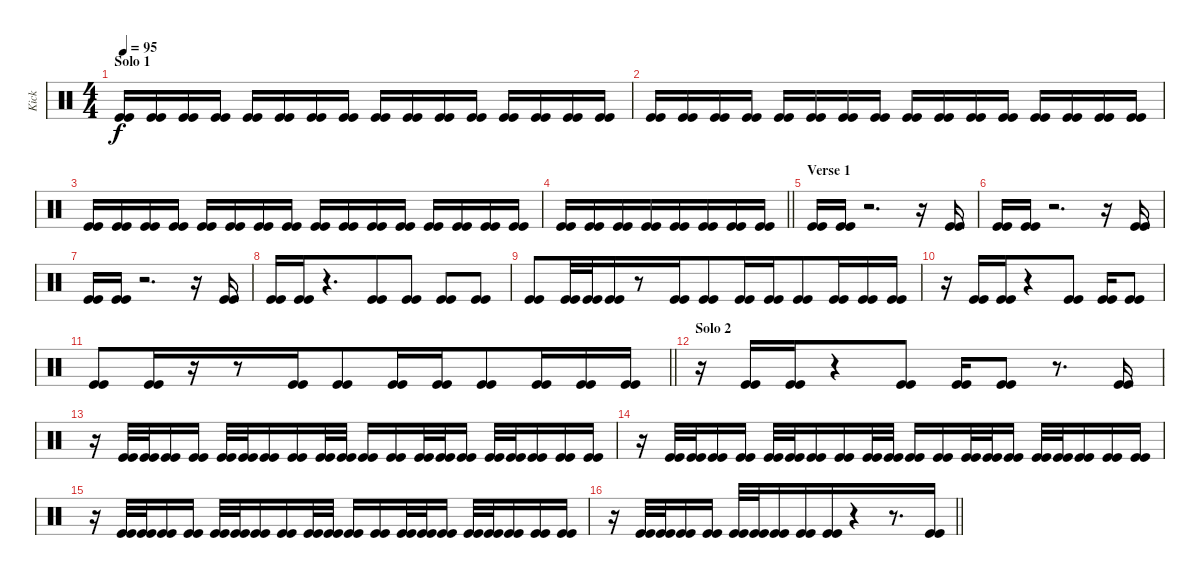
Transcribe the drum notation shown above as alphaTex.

\track ("Kick" "Kick") {instrument percussion}
\staff {score}
\articulation defaults
\ts (4 4)
\section ("" "Solo 1")
\tempo 95
\clef neutral
\ks c
("Kick (hit)" "Kick (hit)").16{dy f beam merge} ("Kick (hit)" "Kick (hit)").16{beam merge} ("Kick (hit)" "Kick (hit)").16 ("Kick (hit)" "Kick (hit)").16 ("Kick (hit)" "Kick (hit)").16 ("Kick (hit)" "Kick (hit)").16{beam merge} ("Kick (hit)" "Kick (hit)").16 ("Kick (hit)" "Kick (hit)").16 ("Kick (hit)" "Kick (hit)").16 ("Kick (hit)" "Kick (hit)").16 ("Kick (hit)" "Kick (hit)").16 ("Kick (hit)" "Kick (hit)").16 ("Kick (hit)" "Kick (hit)").16 ("Kick (hit)" "Kick (hit)").16 ("Kick (hit)" "Kick (hit)").16 ("Kick (hit)" "Kick (hit)").16 |
("Kick (hit)" "Kick (hit)").16{beam merge} ("Kick (hit)" "Kick (hit)").16{beam merge} ("Kick (hit)" "Kick (hit)").16 ("Kick (hit)" "Kick (hit)").16 ("Kick (hit)" "Kick (hit)").16 ("Kick (hit)" "Kick (hit)").16{beam merge} ("Kick (hit)" "Kick (hit)").16 ("Kick (hit)" "Kick (hit)").16 ("Kick (hit)" "Kick (hit)").16 ("Kick (hit)" "Kick (hit)").16 ("Kick (hit)" "Kick (hit)").16 ("Kick (hit)" "Kick (hit)").16 ("Kick (hit)" "Kick (hit)").16 ("Kick (hit)" "Kick (hit)").16 ("Kick (hit)" "Kick (hit)").16 ("Kick (hit)" "Kick (hit)").16 |
("Kick (hit)" "Kick (hit)").16{beam merge} ("Kick (hit)" "Kick (hit)").16{beam merge} ("Kick (hit)" "Kick (hit)").16 ("Kick (hit)" "Kick (hit)").16 ("Kick (hit)" "Kick (hit)").16 ("Kick (hit)" "Kick (hit)").16{beam merge} ("Kick (hit)" "Kick (hit)").16 ("Kick (hit)" "Kick (hit)").16 ("Kick (hit)" "Kick (hit)").16 ("Kick (hit)" "Kick (hit)").16 ("Kick (hit)" "Kick (hit)").16 ("Kick (hit)" "Kick (hit)").16 ("Kick (hit)" "Kick (hit)").16 ("Kick (hit)" "Kick (hit)").16 ("Kick (hit)" "Kick (hit)").16 ("Kick (hit)" "Kick (hit)").16 |
\barLineRight lightlight
("Kick (hit)" "Kick (hit)").16 ("Kick (hit)" "Kick (hit)").16 ("Kick (hit)" "Kick (hit)").16 ("Kick (hit)" "Kick (hit)").16{beam merge} ("Kick (hit)" "Kick (hit)").16 ("Kick (hit)" "Kick (hit)").16 ("Kick (hit)" "Kick (hit)").16{beam merge} ("Kick (hit)" "Kick (hit)").16 |
\section ("" "Verse 1")
("Kick (hit)" "Kick (hit)").16{beam merge} ("Kick (hit)" "Kick (hit)").16 r.2{d} r.16 ("Kick (hit)" "Kick (hit)").16 |
("Kick (hit)" "Kick (hit)").16{beam merge} ("Kick (hit)" "Kick (hit)").16 r.2{d} r.16 ("Kick (hit)" "Kick (hit)").16 |
("Kick (hit)" "Kick (hit)").16{beam merge} ("Kick (hit)" "Kick (hit)").16 r.2{d} r.16 ("Kick (hit)" "Kick (hit)").16 |
("Kick (hit)" "Kick (hit)").16 ("Kick (hit)" "Kick (hit)").16{beam merge} r.4{d} ("Kick (hit)" "Kick (hit)").8{beam merge} ("Kick (hit)" "Kick (hit)").8 ("Kick (hit)" "Kick (hit)").8 ("Kick (hit)" "Kick (hit)").8 |
("Kick (hit)" "Kick (hit)").8 ("Kick (hit)" "Kick (hit)").32 ("Kick (hit)" "Kick (hit)").32{beam merge} ("Kick (hit)" "Kick (hit)").16{beam merge} r.8{beam merge} ("Kick (hit)" "Kick (hit)").16 ("Kick (hit)" "Kick (hit)").8{beam merge} ("Kick (hit)" "Kick (hit)").16 ("Kick (hit)" "Kick (hit)").16{beam merge} ("Kick (hit)" "Kick (hit)").8{beam merge} ("Kick (hit)" "Kick (hit)").16 ("Kick (hit)" "Kick (hit)").16 ("Kick (hit)" "Kick (hit)").16 |
r.16 ("Kick (hit)" "Kick (hit)").16 ("Kick (hit)" "Kick (hit)").16{beam merge} r.4 ("Kick (hit)" "Kick (hit)").8 ("Kick (hit)" "Kick (hit)").16{beam merge} ("Kick (hit)" "Kick (hit)").8 |
\barLineRight lightlight
("Kick (hit)" "Kick (hit)").8 ("Kick (hit)" "Kick (hit)").16{beam merge} r.16{beam merge} r.8{beam merge} ("Kick (hit)" "Kick (hit)").16 ("Kick (hit)" "Kick (hit)").8{beam merge} ("Kick (hit)" "Kick (hit)").16 ("Kick (hit)" "Kick (hit)").16{beam merge} ("Kick (hit)" "Kick (hit)").8{beam merge} ("Kick (hit)" "Kick (hit)").16 ("Kick (hit)" "Kick (hit)").16 ("Kick (hit)" "Kick (hit)").16 |
\section ("" "Solo 2")
r.16 ("Kick (hit)" "Kick (hit)").16 ("Kick (hit)" "Kick (hit)").16{beam merge} r.4 ("Kick (hit)" "Kick (hit)").8 ("Kick (hit)" "Kick (hit)").16{beam merge} ("Kick (hit)" "Kick (hit)").8 r.8{d} ("Kick (hit)" "Kick (hit)").16 |
r.16 ("Kick (hit)" "Kick (hit)").32 ("Kick (hit)" "Kick (hit)").32 ("Kick (hit)" "Kick (hit)").16 ("Kick (hit)" "Kick (hit)").16 ("Kick (hit)" "Kick (hit)").32{beam merge} ("Kick (hit)" "Kick (hit)").32 ("Kick (hit)" "Kick (hit)").16 ("Kick (hit)" "Kick (hit)").16 ("Kick (hit)" "Kick (hit)").32 ("Kick (hit)" "Kick (hit)").32 ("Kick (hit)" "Kick (hit)").16{beam merge} ("Kick (hit)" "Kick (hit)").16{beam merge} ("Kick (hit)" "Kick (hit)").32 ("Kick (hit)" "Kick (hit)").32 ("Kick (hit)" "Kick (hit)").16 ("Kick (hit)" "Kick (hit)").32 ("Kick (hit)" "Kick (hit)").32 ("Kick (hit)" "Kick (hit)").16{beam merge} ("Kick (hit)" "Kick (hit)").16 ("Kick (hit)" "Kick (hit)").16 |
r.16 ("Kick (hit)" "Kick (hit)").32 ("Kick (hit)" "Kick (hit)").32{beam merge} ("Kick (hit)" "Kick (hit)").16 ("Kick (hit)" "Kick (hit)").16 ("Kick (hit)" "Kick (hit)").32 ("Kick (hit)" "Kick (hit)").32 ("Kick (hit)" "Kick (hit)").16 ("Kick (hit)" "Kick (hit)").16{beam merge} ("Kick (hit)" "Kick (hit)").32 ("Kick (hit)" "Kick (hit)").32 ("Kick (hit)" "Kick (hit)").16{beam merge} ("Kick (hit)" "Kick (hit)").16{beam merge} ("Kick (hit)" "Kick (hit)").32 ("Kick (hit)" "Kick (hit)").32 ("Kick (hit)" "Kick (hit)").16 ("Kick (hit)" "Kick (hit)").32 ("Kick (hit)" "Kick (hit)").32{beam merge} ("Kick (hit)" "Kick (hit)").16{beam merge} ("Kick (hit)" "Kick (hit)").16 ("Kick (hit)" "Kick (hit)").16 |
r.16 ("Kick (hit)" "Kick (hit)").32 ("Kick (hit)" "Kick (hit)").32{beam merge} ("Kick (hit)" "Kick (hit)").16 ("Kick (hit)" "Kick (hit)").16 ("Kick (hit)" "Kick (hit)").32 ("Kick (hit)" "Kick (hit)").32 ("Kick (hit)" "Kick (hit)").16 ("Kick (hit)" "Kick (hit)").16{beam merge} ("Kick (hit)" "Kick (hit)").32 ("Kick (hit)" "Kick (hit)").32 ("Kick (hit)" "Kick (hit)").16{beam merge} ("Kick (hit)" "Kick (hit)").16{beam merge} ("Kick (hit)" "Kick (hit)").32 ("Kick (hit)" "Kick (hit)").32 ("Kick (hit)" "Kick (hit)").16 ("Kick (hit)" "Kick (hit)").32 ("Kick (hit)" "Kick (hit)").32{beam merge} ("Kick (hit)" "Kick (hit)").16{beam merge} ("Kick (hit)" "Kick (hit)").16 ("Kick (hit)" "Kick (hit)").16 |
\barLineRight lightlight
r.16 ("Kick (hit)" "Kick (hit)").32 ("Kick (hit)" "Kick (hit)").32{beam merge} ("Kick (hit)" "Kick (hit)").16 ("Kick (hit)" "Kick (hit)").16 ("Kick (hit)" "Kick (hit)").32 ("Kick (hit)" "Kick (hit)").32 ("Kick (hit)" "Kick (hit)").16 ("Kick (hit)" "Kick (hit)").16{beam merge} ("Kick (hit)" "Kick (hit)").16{beam merge} r.4{beam merge} r.8{d} ("Kick (hit)" "Kick (hit)").16
